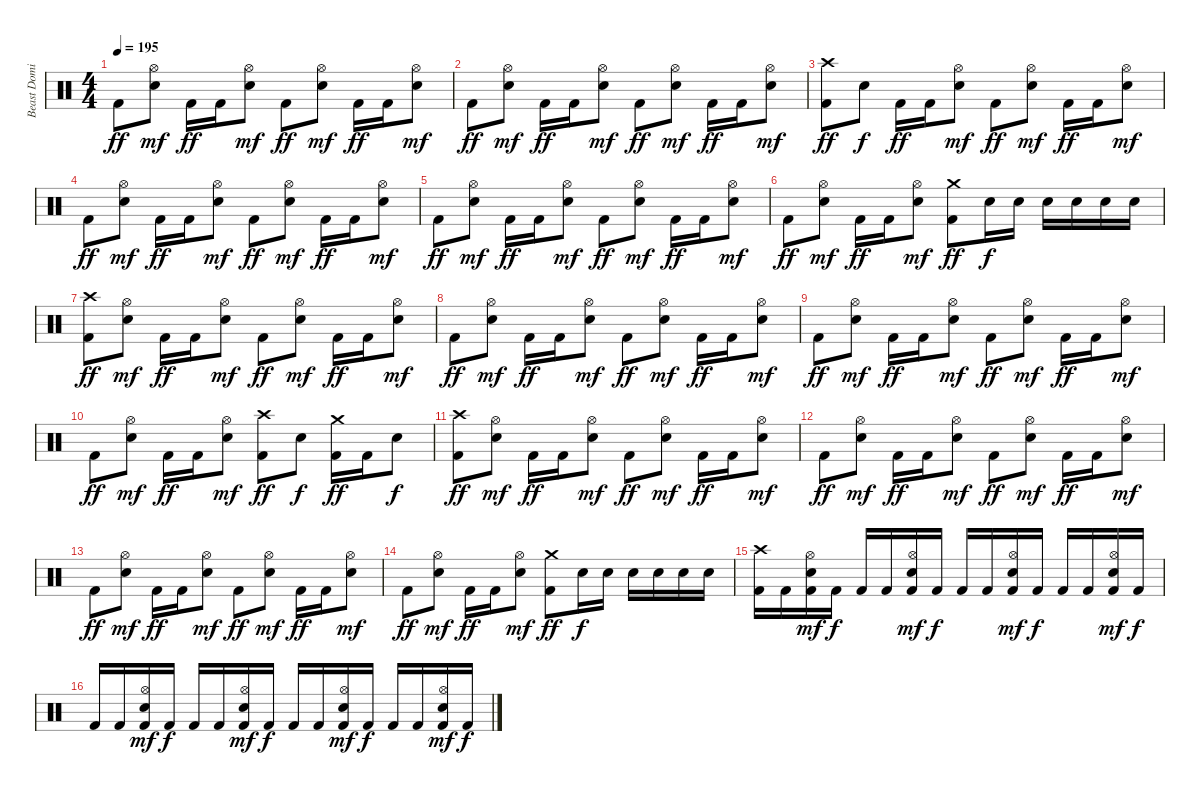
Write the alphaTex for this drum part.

\track ("Beast Dominator" "Beast Domi") {instrument percussion}
\staff {score}
\articulation defaults
\ts (4 4)
\tempo 195
\clef neutral
\ks c "Kick (hit) 2".8{dy ff}
("Hi-Hat (open)" "Snare (hit) 2").8{dy mf} "Kick (hit) 2".16{dy ff} "Kick (hit) 2".16 ("Hi-Hat (open)" "Snare (hit) 2").8{dy mf} "Kick (hit) 2".8{dy ff} ("Hi-Hat (open)" "Snare (hit) 2").8{dy mf} "Kick (hit) 2".16{dy ff} "Kick (hit) 2".16 ("Hi-Hat (open)" "Snare (hit) 2").8{dy mf} |
"Kick (hit) 2".8{dy ff} ("Hi-Hat (open)" "Snare (hit) 2").8{dy mf} "Kick (hit) 2".16{dy ff} "Kick (hit) 2".16 ("Hi-Hat (open)" "Snare (hit) 2").8{dy mf} "Kick (hit) 2".8{dy ff} ("Hi-Hat (open)" "Snare (hit) 2").8{dy mf} "Kick (hit) 2".16{dy ff} "Kick (hit) 2".16 ("Hi-Hat (open)" "Snare (hit) 2").8{dy mf} |
("Crash high (hit)" "Kick (hit) 2").8{dy ff} "Snare (hit) 2".8{dy f} "Kick (hit) 2".16{dy ff} "Kick (hit) 2".16 ("Hi-Hat (open)" "Snare (hit) 2").8{dy mf} "Kick (hit) 2".8{dy ff} ("Hi-Hat (open)" "Snare (hit) 2").8{dy mf} "Kick (hit) 2".16{dy ff} "Kick (hit) 2".16 ("Hi-Hat (open)" "Snare (hit) 2").8{dy mf} |
"Kick (hit) 2".8{dy ff} ("Hi-Hat (open)" "Snare (hit) 2").8{dy mf} "Kick (hit) 2".16{dy ff} "Kick (hit) 2".16 ("Hi-Hat (open)" "Snare (hit) 2").8{dy mf} "Kick (hit) 2".8{dy ff} ("Hi-Hat (open)" "Snare (hit) 2").8{dy mf} "Kick (hit) 2".16{dy ff} "Kick (hit) 2".16 ("Hi-Hat (open)" "Snare (hit) 2").8{dy mf} |
"Kick (hit) 2".8{dy ff} ("Hi-Hat (open)" "Snare (hit) 2").8{dy mf} "Kick (hit) 2".16{dy ff} "Kick (hit) 2".16 ("Hi-Hat (open)" "Snare (hit) 2").8{dy mf} "Kick (hit) 2".8{dy ff} ("Hi-Hat (open)" "Snare (hit) 2").8{dy mf} "Kick (hit) 2".16{dy ff} "Kick (hit) 2".16 ("Hi-Hat (open)" "Snare (hit) 2").8{dy mf} |
"Kick (hit) 2".8{dy ff} ("Hi-Hat (open)" "Snare (hit) 2").8{dy mf} "Kick (hit) 2".16{dy ff} "Kick (hit) 2".16 ("Hi-Hat (open)" "Snare (hit) 2").8{dy mf} ("Crash medium (hit)" "Kick (hit) 2").8{dy ff} "Snare (hit) 2".16{dy f} "Snare (hit) 2".16 "Snare (hit) 2".16 "Snare (hit) 2".16 "Snare (hit) 2".16 "Snare (hit) 2".16 |
("Crash high (hit)" "Kick (hit) 2").8{dy ff} ("Hi-Hat (open)" "Snare (hit) 2").8{dy mf} "Kick (hit) 2".16{dy ff} "Kick (hit) 2".16 ("Hi-Hat (open)" "Snare (hit) 2").8{dy mf} "Kick (hit) 2".8{dy ff} ("Hi-Hat (open)" "Snare (hit) 2").8{dy mf} "Kick (hit) 2".16{dy ff} "Kick (hit) 2".16 ("Hi-Hat (open)" "Snare (hit) 2").8{dy mf} |
"Kick (hit) 2".8{dy ff} ("Hi-Hat (open)" "Snare (hit) 2").8{dy mf} "Kick (hit) 2".16{dy ff} "Kick (hit) 2".16 ("Hi-Hat (open)" "Snare (hit) 2").8{dy mf} "Kick (hit) 2".8{dy ff} ("Hi-Hat (open)" "Snare (hit) 2").8{dy mf} "Kick (hit) 2".16{dy ff} "Kick (hit) 2".16 ("Hi-Hat (open)" "Snare (hit) 2").8{dy mf} |
"Kick (hit) 2".8{dy ff} ("Hi-Hat (open)" "Snare (hit) 2").8{dy mf} "Kick (hit) 2".16{dy ff} "Kick (hit) 2".16 ("Hi-Hat (open)" "Snare (hit) 2").8{dy mf} "Kick (hit) 2".8{dy ff} ("Hi-Hat (open)" "Snare (hit) 2").8{dy mf} "Kick (hit) 2".16{dy ff} "Kick (hit) 2".16 ("Hi-Hat (open)" "Snare (hit) 2").8{dy mf} |
"Kick (hit) 2".8{dy ff} ("Hi-Hat (open)" "Snare (hit) 2").8{dy mf} "Kick (hit) 2".16{dy ff} "Kick (hit) 2".16 ("Hi-Hat (open)" "Snare (hit) 2").8{dy mf} ("Crash high (hit)" "Kick (hit) 2").8{dy ff} "Snare (hit) 2".8{dy f} ("Crash medium (hit)" "Kick (hit) 2").16{dy ff} "Kick (hit) 2".16 "Snare (hit) 2".8{dy f} |
("Crash high (hit)" "Kick (hit) 2").8{dy ff} ("Hi-Hat (open)" "Snare (hit) 2").8{dy mf} "Kick (hit) 2".16{dy ff} "Kick (hit) 2".16 ("Hi-Hat (open)" "Snare (hit) 2").8{dy mf} "Kick (hit) 2".8{dy ff} ("Hi-Hat (open)" "Snare (hit) 2").8{dy mf} "Kick (hit) 2".16{dy ff} "Kick (hit) 2".16 ("Hi-Hat (open)" "Snare (hit) 2").8{dy mf} |
"Kick (hit) 2".8{dy ff} ("Hi-Hat (open)" "Snare (hit) 2").8{dy mf} "Kick (hit) 2".16{dy ff} "Kick (hit) 2".16 ("Hi-Hat (open)" "Snare (hit) 2").8{dy mf} "Kick (hit) 2".8{dy ff} ("Hi-Hat (open)" "Snare (hit) 2").8{dy mf} "Kick (hit) 2".16{dy ff} "Kick (hit) 2".16 ("Hi-Hat (open)" "Snare (hit) 2").8{dy mf} |
"Kick (hit) 2".8{dy ff} ("Hi-Hat (open)" "Snare (hit) 2").8{dy mf} "Kick (hit) 2".16{dy ff} "Kick (hit) 2".16 ("Hi-Hat (open)" "Snare (hit) 2").8{dy mf} "Kick (hit) 2".8{dy ff} ("Hi-Hat (open)" "Snare (hit) 2").8{dy mf} "Kick (hit) 2".16{dy ff} "Kick (hit) 2".16 ("Hi-Hat (open)" "Snare (hit) 2").8{dy mf} |
"Kick (hit) 2".8{dy ff} ("Hi-Hat (open)" "Snare (hit) 2").8{dy mf} "Kick (hit) 2".16{dy ff} "Kick (hit) 2".16 ("Hi-Hat (open)" "Snare (hit) 2").8{dy mf} ("Crash medium (hit)" "Kick (hit) 2").8{dy ff} "Snare (hit) 2".16{dy f} "Snare (hit) 2".16 "Snare (hit) 2".16 "Snare (hit) 2".16 "Snare (hit) 2".16 "Snare (hit) 2".16 |
("Crash high (hit)" "Kick (hit) 2").16 "Kick (hit) 2".16 ("Hi-Hat (open)" "Snare (hit) 2" "Kick (hit) 2").16{dy mf} "Kick (hit) 2".16{dy f} "Kick (hit) 2".16 "Kick (hit) 2".16 ("Hi-Hat (open)" "Snare (hit) 2" "Kick (hit) 2").16{dy mf} "Kick (hit) 2".16{dy f} "Kick (hit) 2".16 "Kick (hit) 2".16 ("Hi-Hat (open)" "Snare (hit) 2" "Kick (hit) 2").16{dy mf} "Kick (hit) 2".16{dy f} "Kick (hit) 2".16 "Kick (hit) 2".16 ("Hi-Hat (open)" "Snare (hit) 2" "Kick (hit) 2").16{dy mf} "Kick (hit) 2".16{dy f} |
"Kick (hit) 2".16 "Kick (hit) 2".16 ("Hi-Hat (open)" "Snare (hit) 2" "Kick (hit) 2").16{dy mf} "Kick (hit) 2".16{dy f} "Kick (hit) 2".16 "Kick (hit) 2".16 ("Hi-Hat (open)" "Snare (hit) 2" "Kick (hit) 2").16{dy mf} "Kick (hit) 2".16{dy f} "Kick (hit) 2".16 "Kick (hit) 2".16 ("Hi-Hat (open)" "Snare (hit) 2" "Kick (hit) 2").16{dy mf} "Kick (hit) 2".16{dy f} "Kick (hit) 2".16 "Kick (hit) 2".16 ("Hi-Hat (open)" "Snare (hit) 2" "Kick (hit) 2").16{dy mf} "Kick (hit) 2".16{dy f}
